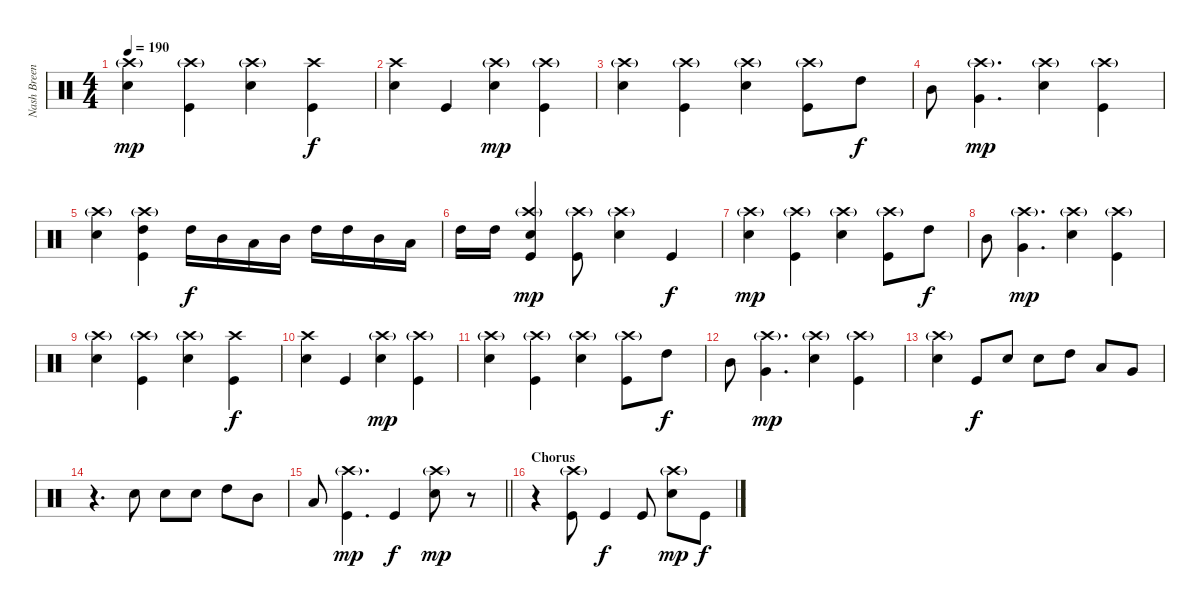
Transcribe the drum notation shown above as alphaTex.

\track ("Nash Breen (Percussion)" "Nash Breen") {instrument percussion}
\staff {score}
\articulation defaults
\ts (4 4)
\tempo 190
\clef neutral
\ks c
("Electric Snare (hit)" "Crash high (hit)"{g}).4{dy mp} ("Kick (hit)" "Crash high (hit)"{g}).4 ("Electric Snare (hit)" "Crash high (hit)"{g}).4 ("Kick (hit)" "Crash high (hit)").4{dy f} |
("Electric Snare (hit)" "Crash high (hit)").4 "Kick (hit)".4 ("Electric Snare (hit)" "Crash high (hit)"{g}).4{dy mp} ("Kick (hit)" "Crash high (hit)"{g}).4 |
("Electric Snare (hit)" "Crash high (hit)"{g}).4 ("Kick (hit)" "Crash high (hit)"{g}).4 ("Electric Snare (hit)" "Crash high (hit)"{g}).4 ("Kick (hit)" "Crash high (hit)"{g}).8 "High Tom (hit)".8{dy f} |
"Mid Tom (hit)".8 ("Very Low Tom (hit)" "Crash high (hit)"{g}).4{d dy mp} ("Electric Snare (hit)" "Crash high (hit)"{g}).4 ("Kick (hit)" "Crash high (hit)"{g}).4 |
("Electric Snare (hit)" "Crash high (hit)"{g}).4 ("High Tom (hit)" "Kick (hit)" "Crash high (hit)"{g}).4 "High Tom (hit)".16{dy f} "Mid Tom (hit)".16 "Low Tom (hit)".16 "Mid Tom (hit)".16 "High Tom (hit)".16 "High Tom (hit)".16 "Mid Tom (hit)".16 "Low Tom (hit)".16 |
"High Tom (hit)".16 "High Tom (hit)".16 ("Crash high (hit)"{g} "Kick (hit)" "Electric Snare (hit)").4{dy mp} ("Kick (hit)" "Crash high (hit)"{g}).8 ("Electric Snare (hit)" "Crash high (hit)"{g}).4 "Kick (hit)".4{dy f} |
("Electric Snare (hit)" "Crash high (hit)"{g}).4{dy mp} ("Kick (hit)" "Crash high (hit)"{g}).4 ("Electric Snare (hit)" "Crash high (hit)"{g}).4 ("Kick (hit)" "Crash high (hit)"{g}).8 "High Tom (hit)".8{dy f} |
"Mid Tom (hit)".8 ("Very Low Tom (hit)" "Crash high (hit)"{g}).4{d dy mp} ("Electric Snare (hit)" "Crash high (hit)"{g}).4 ("Kick (hit)" "Crash high (hit)"{g}).4 |
("Electric Snare (hit)" "Crash high (hit)"{g}).4 ("Kick (hit)" "Crash high (hit)"{g}).4 ("Electric Snare (hit)" "Crash high (hit)"{g}).4 ("Kick (hit)" "Crash high (hit)").4{dy f} |
("Electric Snare (hit)" "Crash high (hit)").4 "Kick (hit)".4 ("Electric Snare (hit)" "Crash high (hit)"{g}).4{dy mp} ("Kick (hit)" "Crash high (hit)"{g}).4 |
("Electric Snare (hit)" "Crash high (hit)"{g}).4 ("Kick (hit)" "Crash high (hit)"{g}).4 ("Electric Snare (hit)" "Crash high (hit)"{g}).4 ("Kick (hit)" "Crash high (hit)"{g}).8 "High Tom (hit)".8{dy f} |
"Mid Tom (hit)".8 ("Very Low Tom (hit)" "Crash high (hit)"{g}).4{d dy mp} ("Electric Snare (hit)" "Crash high (hit)"{g}).4 ("Kick (hit)" "Crash high (hit)"{g}).4 |
("Electric Snare (hit)" "Crash high (hit)"{g}).4 "Kick (hit)".8{dy f} "Electric Snare (hit)".8 "Electric Snare (hit)".8 "High Tom (hit)".8 "Low Tom (hit)".8 "Very Low Tom (hit)".8 |
r.4{d} "Electric Snare (hit)".8 "Electric Snare (hit)".8 "Electric Snare (hit)".8 "High Tom (hit)".8 "Mid Tom (hit)".8 |
\barLineRight lightlight "Low Tom (hit)".8
("Kick (hit)" "Crash high (hit)"{g}).4{d dy mp} "Kick (hit)".4{dy f} ("Electric Snare (hit)" "Crash high (hit)"{g}).8{dy mp} r.8 |
\section ("" "Chorus")
r.4 ("Kick (hit)" "Crash high (hit)"{g}).8 "Kick (hit)".4{dy f} "Kick (hit)".8 ("Electric Snare (hit)" "Crash high (hit)"{g}).8{dy mp} "Kick (hit)".8{dy f}
